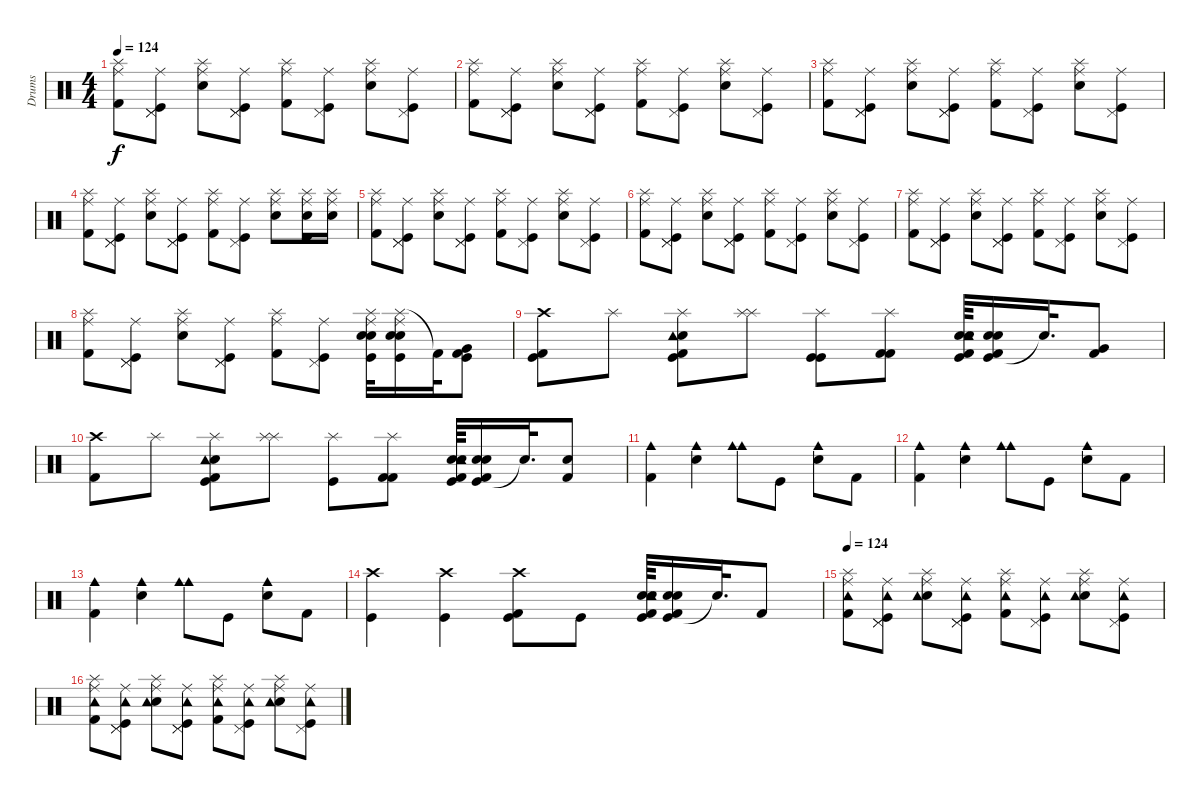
\track ("Drums " "Drums ") {instrument percussion}
\staff {score}
\articulation defaults
\ts (4 4)
\tempo 124
\clef neutral
\ks c
("Splash (hit)" "Ride (middle)" "Kick (hit) 2").8{dy f} ("Pedal Hi-Hat (hit)" "Ride (middle)" "Kick (hit)" "Pedal Hi-Hat (hit)").8 ("Splash (hit)" "Ride (middle)" "Electric Snare (hit)").8 ("Pedal Hi-Hat (hit)" "Ride (middle)" "Kick (hit)" "Pedal Hi-Hat (hit)").8 ("Splash (hit)" "Ride (middle)" "Kick (hit) 2").8 ("Pedal Hi-Hat (hit)" "Ride (middle)" "Kick (hit)").8 ("Splash (hit)" "Ride (middle)" "Electric Snare (hit)").8 ("Pedal Hi-Hat (hit)" "Ride (middle)" "Kick (hit)").8 |
("Splash (hit)" "Ride (middle)" "Kick (hit) 2").8 ("Pedal Hi-Hat (hit)" "Ride (middle)" "Kick (hit)" "Pedal Hi-Hat (hit)").8 ("Splash (hit)" "Ride (middle)" "Electric Snare (hit)").8 ("Pedal Hi-Hat (hit)" "Ride (middle)" "Kick (hit)" "Pedal Hi-Hat (hit)").8 ("Splash (hit)" "Ride (middle)" "Kick (hit) 2").8 ("Pedal Hi-Hat (hit)" "Ride (middle)" "Kick (hit)").8 ("Splash (hit)" "Ride (middle)" "Electric Snare (hit)").8 ("Pedal Hi-Hat (hit)" "Ride (middle)" "Kick (hit)").8 |
("Splash (hit)" "Ride (middle)" "Kick (hit) 2").8 ("Pedal Hi-Hat (hit)" "Ride (middle)" "Kick (hit)" "Pedal Hi-Hat (hit)").8 ("Splash (hit)" "Ride (middle)" "Electric Snare (hit)").8 ("Pedal Hi-Hat (hit)" "Ride (middle)" "Kick (hit)" "Pedal Hi-Hat (hit)").8 ("Splash (hit)" "Ride (middle)" "Kick (hit) 2").8 ("Pedal Hi-Hat (hit)" "Ride (middle)" "Kick (hit)").8 ("Splash (hit)" "Ride (middle)" "Electric Snare (hit)").8 ("Pedal Hi-Hat (hit)" "Ride (middle)" "Kick (hit)").8 |
("Splash (hit)" "Ride (middle)" "Kick (hit) 2").8 ("Pedal Hi-Hat (hit)" "Ride (middle)" "Kick (hit)" "Pedal Hi-Hat (hit)").8 ("Splash (hit)" "Ride (middle)" "Electric Snare (hit)").8 ("Pedal Hi-Hat (hit)" "Ride (middle)" "Kick (hit)" "Pedal Hi-Hat (hit)").8 ("Splash (hit)" "Ride (middle)" "Kick (hit) 2").8 ("Pedal Hi-Hat (hit)" "Ride (middle)" "Kick (hit)").8 ("Splash (hit)" "Ride (middle)" "Electric Snare (hit)").8 ("Splash (hit)" "Ride (middle)" "Kick (hit)" "Electric Snare (hit)").16 ("Splash (hit)" "Ride (middle)" "Electric Snare (hit)").16 |
("Splash (hit)" "Ride (middle)" "Kick (hit) 2").8 ("Pedal Hi-Hat (hit)" "Ride (middle)" "Kick (hit)" "Pedal Hi-Hat (hit)").8 ("Splash (hit)" "Ride (middle)" "Electric Snare (hit)").8 ("Pedal Hi-Hat (hit)" "Ride (middle)" "Kick (hit)" "Pedal Hi-Hat (hit)").8 ("Splash (hit)" "Ride (middle)" "Kick (hit) 2").8 ("Pedal Hi-Hat (hit)" "Ride (middle)" "Kick (hit)").8 ("Splash (hit)" "Ride (middle)" "Electric Snare (hit)").8 ("Pedal Hi-Hat (hit)" "Ride (middle)" "Kick (hit)").8 |
("Splash (hit)" "Ride (middle)" "Kick (hit) 2").8 ("Pedal Hi-Hat (hit)" "Ride (middle)" "Kick (hit)" "Pedal Hi-Hat (hit)").8 ("Splash (hit)" "Ride (middle)" "Electric Snare (hit)").8 ("Pedal Hi-Hat (hit)" "Ride (middle)" "Kick (hit)" "Pedal Hi-Hat (hit)").8 ("Splash (hit)" "Ride (middle)" "Kick (hit) 2").8 ("Pedal Hi-Hat (hit)" "Ride (middle)" "Kick (hit)").8 ("Splash (hit)" "Ride (middle)" "Electric Snare (hit)").8 ("Pedal Hi-Hat (hit)" "Ride (middle)" "Kick (hit)").8 |
("Splash (hit)" "Ride (middle)" "Kick (hit) 2").8 ("Pedal Hi-Hat (hit)" "Ride (middle)" "Kick (hit)" "Pedal Hi-Hat (hit)").8 ("Splash (hit)" "Ride (middle)" "Electric Snare (hit)").8 ("Pedal Hi-Hat (hit)" "Ride (middle)" "Kick (hit)" "Pedal Hi-Hat (hit)").8 ("Splash (hit)" "Ride (middle)" "Kick (hit) 2").8 ("Pedal Hi-Hat (hit)" "Ride (middle)" "Kick (hit)").8 ("Splash (hit)" "Ride (middle)" "Electric Snare (hit)").8 ("Pedal Hi-Hat (hit)" "Ride (middle)" "Kick (hit)").8 |
("Splash (hit)" "Ride (middle)" "Kick (hit) 2").8 ("Pedal Hi-Hat (hit)" "Ride (middle)" "Kick (hit)" "Pedal Hi-Hat (hit)").8 ("Splash (hit)" "Ride (middle)" "Electric Snare (hit)").8 ("Pedal Hi-Hat (hit)" "Ride (middle)" "Kick (hit)" "Pedal Hi-Hat (hit)").8 ("Splash (hit)" "Ride (middle)" "Kick (hit) 2").8 ("Pedal Hi-Hat (hit)" "Ride (middle)" "Kick (hit)").8 ("Splash (hit)" "Ride (middle)" "Kick (hit)" "Electric Snare (hit)" "Snare (hit) 2").32 ("Splash (hit)" "Ride (middle)" "Kick (hit)" "Electric Snare (hit)" "Snare (hit) 2").16 "Kick (hit) 2"{t}.32 ("Very Low Tom (hit)" "Kick (hit)" "Kick (hit) 2").8 |
("Kick (hit) 2" "Kick (hit)" "Crash high (hit)").8 "Splash (hit)".8 ("Kick (hit)" "Kick (hit) 2" "Electric Snare (hit)" "Tambourine (hit)" "Splash (hit)").8 ("Splash (hit)" "Splash (hit)").8 ("Splash (hit)" "Kick (hit)" "Kick (hit)").8 ("Splash (hit)" "Kick (hit) 2" "Kick (hit) 2").8 ("Kick (hit)" "Kick (hit) 2" "Electric Snare (hit)" "Tambourine (hit)" "Snare (hit) 2").64 ("Kick (hit)" "Kick (hit) 2" "Electric Snare (hit)" "Snare (hit) 2").16 "Snare (hit)"{t}.32{d} ("Very Low Tom (hit)" "Kick (hit) 2").8 |
("Kick (hit) 2" "Crash high (hit)").8 "Splash (hit)".8 ("Kick (hit)" "Kick (hit) 2" "Electric Snare (hit)" "Tambourine (hit)" "Splash (hit)").8 ("Splash (hit)" "Splash (hit)").8 ("Splash (hit)" "Kick (hit)").8 ("Splash (hit)" "Kick (hit) 2" "Kick (hit) 2").8 ("Kick (hit)" "Kick (hit) 2" "Electric Snare (hit)" "Tambourine (hit)" "Snare (hit) 2").64 ("Kick (hit)" "Kick (hit) 2" "Electric Snare (hit)" "Snare (hit) 2").16 "Snare (hit)"{t}.32{d} ("Electric Snare (hit)" "Kick (hit) 2").8 |
("Kick (hit) 2" "Cowbell medium (hit)").4 ("Cowbell medium (hit)" "Electric Snare (hit)").4 ("Cowbell medium (hit)" "Cowbell medium (hit)").8 "Kick (hit)".8 ("Cowbell medium (hit)" "Electric Snare (hit)").8 "Kick (hit) 2".8 |
("Kick (hit) 2" "Cowbell medium (hit)").4 ("Cowbell medium (hit)" "Electric Snare (hit)").4 ("Cowbell medium (hit)" "Cowbell medium (hit)").8 "Kick (hit)".8 ("Cowbell medium (hit)" "Electric Snare (hit)").8 "Kick (hit) 2".8 |
("Kick (hit) 2" "Cowbell medium (hit)").4 ("Cowbell medium (hit)" "Electric Snare (hit)").4 ("Cowbell medium (hit)" "Cowbell medium (hit)").8 "Kick (hit)".8 ("Cowbell medium (hit)" "Electric Snare (hit)").8 "Kick (hit) 2".8 |
("Kick (hit)" "Crash high (hit)").4 ("Crash high (hit)" "Kick (hit)").4 ("Kick (hit)" "Kick (hit) 2" "Crash high (hit)").8 "Kick (hit)".8 ("Kick (hit)" "Kick (hit) 2" "Electric Snare (hit)" "Tambourine (hit)" "Snare (hit) 2").64 ("Kick (hit)" "Kick (hit) 2" "Electric Snare (hit)" "Snare (hit) 2").16 "Snare (hit)"{t}.32{d} "Kick (hit) 2".8 |
\tempo 124
("Splash (hit)" "Ride (middle)" "Kick (hit) 2" "Tambourine (hit)").8 ("Pedal Hi-Hat (hit)" "Ride (middle)" "Kick (hit)" "Pedal Hi-Hat (hit)" "Tambourine (hit)").8 ("Splash (hit)" "Ride (middle)" "Electric Snare (hit)" "Tambourine (hit)").8 ("Pedal Hi-Hat (hit)" "Ride (middle)" "Kick (hit)" "Pedal Hi-Hat (hit)" "Tambourine (hit)").8 ("Splash (hit)" "Ride (middle)" "Kick (hit) 2" "Tambourine (hit)").8 ("Pedal Hi-Hat (hit)" "Ride (middle)" "Kick (hit)" "Tambourine (hit)").8 ("Splash (hit)" "Ride (middle)" "Electric Snare (hit)" "Tambourine (hit)").8 ("Pedal Hi-Hat (hit)" "Ride (middle)" "Kick (hit)" "Tambourine (hit)").8 |
("Splash (hit)" "Ride (middle)" "Kick (hit) 2" "Tambourine (hit)").8 ("Pedal Hi-Hat (hit)" "Ride (middle)" "Kick (hit)" "Pedal Hi-Hat (hit)" "Tambourine (hit)").8 ("Splash (hit)" "Ride (middle)" "Electric Snare (hit)" "Tambourine (hit)").8 ("Pedal Hi-Hat (hit)" "Ride (middle)" "Kick (hit)" "Pedal Hi-Hat (hit)" "Tambourine (hit)").8 ("Splash (hit)" "Ride (middle)" "Kick (hit) 2" "Tambourine (hit)").8 ("Pedal Hi-Hat (hit)" "Ride (middle)" "Kick (hit)" "Tambourine (hit)").8 ("Splash (hit)" "Ride (middle)" "Electric Snare (hit)" "Tambourine (hit)").8 ("Pedal Hi-Hat (hit)" "Ride (middle)" "Kick (hit)" "Tambourine (hit)").8
